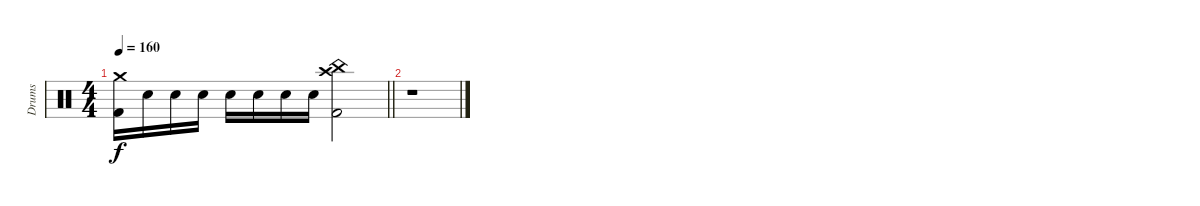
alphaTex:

\track ("Drums" "Drums") {instrument percussion}
\staff {score}
\articulation defaults
\ts (4 4)
\tempo 160
\clef neutral
\barLineRight lightlight
\ks c
("Crash medium (hit)" "Kick (hit) 2").16{dy f} "Electric Snare (hit)".16 "Electric Snare (hit)".16 "Electric Snare (hit)".16 "Electric Snare (hit)".16 "Electric Snare (hit)".16 "Electric Snare (hit)".16 "Electric Snare (hit)".16 ("China (hit)" "Crash high (hit)" "Kick (hit) 2").2 |
r.1
